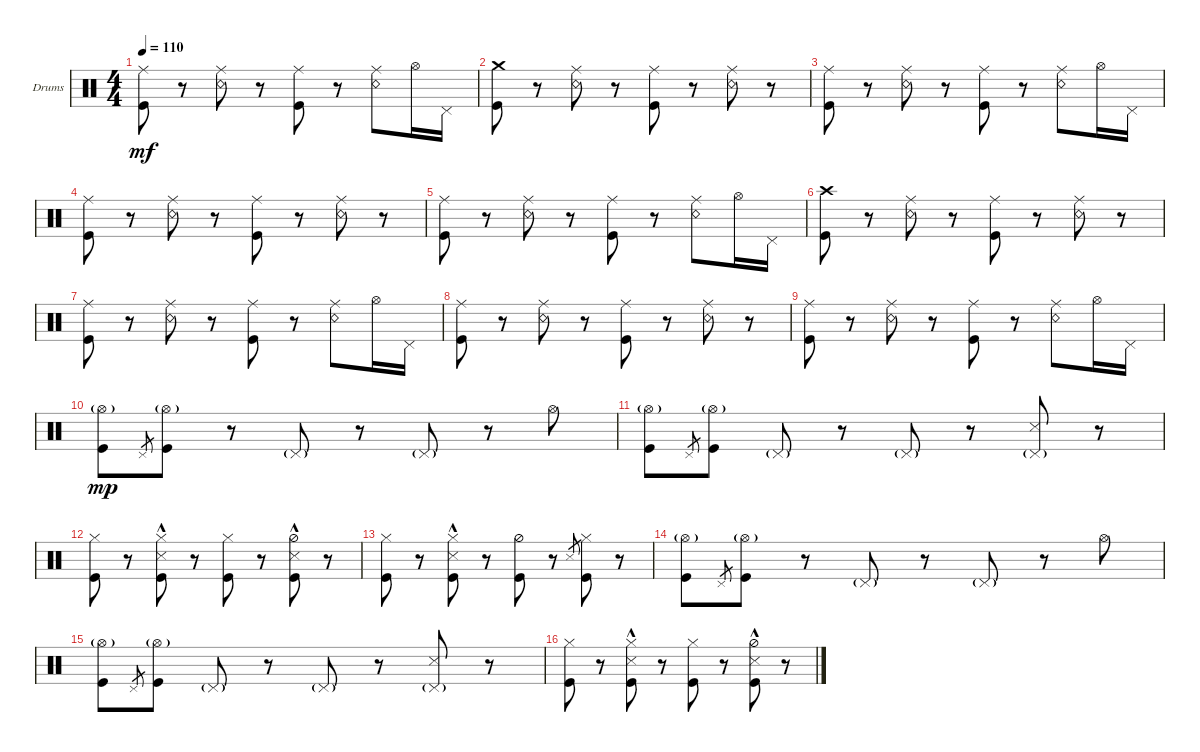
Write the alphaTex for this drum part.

\defaultSystemsLayout 4
\bracketExtendMode groupsimilarinstruments
\firstSystemTrackNameOrientation horizontal
\otherSystemsTrackNameOrientation horizontal
\track ("Drumkit" "Drums") {instrument percussion}
\staff {score}
\articulation defaults
\ts (4 4)
\tempo 110
\clef neutral
\scale
0.333333
\ks c
("Kick (hit)" "Ride (middle)").8{dy mf} r.8 ("Snare (rim shot)" "Ride (middle)").8 r.8 ("Kick (hit)" "Ride (middle)").8 r.8 ("Snare (rim shot)" "Ride (middle)").8 "Hi-Hat (open)".16 "Pedal Hi-Hat (hit)".16 |
\scale
0.333333 ("Kick (hit)" "Crash medium (hit)").8 r.8 ("Snare (rim shot)" "Ride (middle)").8 r.8 ("Kick (hit)" "Ride (middle)").8 r.8 ("Snare (rim shot)" "Ride (middle)").8 r.8 |
\scale
0.333333 ("Kick (hit)" "Ride (middle)").8 r.8 ("Snare (rim shot)" "Ride (middle)").8 r.8 ("Kick (hit)" "Ride (middle)").8 r.8 ("Snare (rim shot)" "Ride (middle)").8 "Hi-Hat (open)".16 "Pedal Hi-Hat (hit)".16 |
\scale
0.333333 ("Kick (hit)" "Ride (middle)").8 r.8 ("Snare (rim shot)" "Ride (middle)").8 r.8 ("Kick (hit)" "Ride (middle)").8 r.8 ("Snare (rim shot)" "Ride (middle)").8 r.8 |
\scale
0.333333 ("Kick (hit)" "Ride (middle)").8 r.8 ("Snare (rim shot)" "Ride (middle)").8 r.8 ("Kick (hit)" "Ride (middle)").8 r.8 ("Snare (rim shot)" "Ride (middle)").8 "Hi-Hat (open)".16 "Pedal Hi-Hat (hit)".16 |
\scale
0.333333 ("Kick (hit)" "Crash high (hit)").8 r.8 ("Snare (rim shot)" "Ride (middle)").8 r.8 ("Kick (hit)" "Ride (middle)").8 r.8 ("Snare (rim shot)" "Ride (middle)").8 r.8 |
\scale
0.333333 ("Kick (hit)" "Ride (middle)").8 r.8 ("Snare (rim shot)" "Ride (middle)").8 r.8 ("Kick (hit)" "Ride (middle)").8 r.8 ("Snare (rim shot)" "Ride (middle)").8 "Hi-Hat (open)".16 "Pedal Hi-Hat (hit)".16 |
\scale
0.333333 ("Kick (hit)" "Ride (middle)").8 r.8 ("Snare (rim shot)" "Ride (middle)").8 r.8 ("Kick (hit)" "Ride (middle)").8 r.8 ("Snare (rim shot)" "Ride (middle)").8 r.8 |
\scale
0.333333 ("Kick (hit)" "Ride (middle)").8 r.8 ("Snare (rim shot)" "Ride (middle)").8 r.8 ("Kick (hit)" "Ride (middle)").8 r.8 ("Snare (rim shot)" "Ride (middle)").8 "Hi-Hat (open)".16 "Pedal Hi-Hat (hit)".16 |
\scale
0.333333 ("Hi-Hat (open)"{g} "Kick (hit)").8{dy mp} "Pedal Hi-Hat (hit)".8{gr} ("Kick (hit)" "Hi-Hat (open)"{g}).8 r.8 "Pedal Hi-Hat (hit)"{g}.8 r.8 "Pedal Hi-Hat (hit)"{g}.8 r.8 "Hi-Hat (open)".8 |
\scale
0.333333 ("Hi-Hat (open)"{g} "Kick (hit)").8 "Pedal Hi-Hat (hit)".8{gr} ("Kick (hit)" "Hi-Hat (open)"{g}).8 "Pedal Hi-Hat (hit)"{g}.8 r.8 "Pedal Hi-Hat (hit)"{g}.8 r.8 ("Pedal Hi-Hat (hit)"{g} "Snare (side stick) 3").8 r.8 |
\scale
0.333333 ("Kick (hit)" "Hi-Hat (closed)").8 r.8 ("Snare (side stick) 3"{hac} "Hi-Hat (closed)" "Kick (hit)").8 r.8 ("Kick (hit)" "Hi-Hat (closed)").8 r.8 ("Snare (side stick) 3"{hac} "Hi-Hat (half)" "Kick (hit)").8 r.8 |
\scale
0.333333 ("Kick (hit)" "Hi-Hat (closed)").8 r.8 ("Snare (side stick) 3"{hac} "Hi-Hat (closed)" "Kick (hit)").8 r.8 ("Kick (hit)" "Hi-Hat (half)").8 r.8 "Snare (side stick) 3".8{gr} ("Hi-Hat (closed)" "Kick (hit)").8 r.8 |
\scale
0.333333 ("Hi-Hat (open)"{g} "Kick (hit)").8 "Pedal Hi-Hat (hit)".8{gr} ("Kick (hit)" "Hi-Hat (open)"{g}).8 r.8 "Pedal Hi-Hat (hit)"{g}.8 r.8 "Pedal Hi-Hat (hit)"{g}.8 r.8 "Hi-Hat (open)".8 |
\scale
0.333333 ("Hi-Hat (open)"{g} "Kick (hit)").8 "Pedal Hi-Hat (hit)".8{gr} ("Kick (hit)" "Hi-Hat (open)"{g}).8 "Pedal Hi-Hat (hit)"{g}.8 r.8 "Pedal Hi-Hat (hit)"{g}.8 r.8 ("Pedal Hi-Hat (hit)"{g} "Snare (side stick) 3").8 r.8 |
\scale
0.333333 ("Kick (hit)" "Hi-Hat (closed)").8 r.8 ("Snare (side stick) 3"{hac} "Hi-Hat (closed)" "Kick (hit)").8 r.8 ("Kick (hit)" "Hi-Hat (closed)").8 r.8 ("Snare (side stick) 3"{hac} "Hi-Hat (half)" "Kick (hit)").8 r.8
